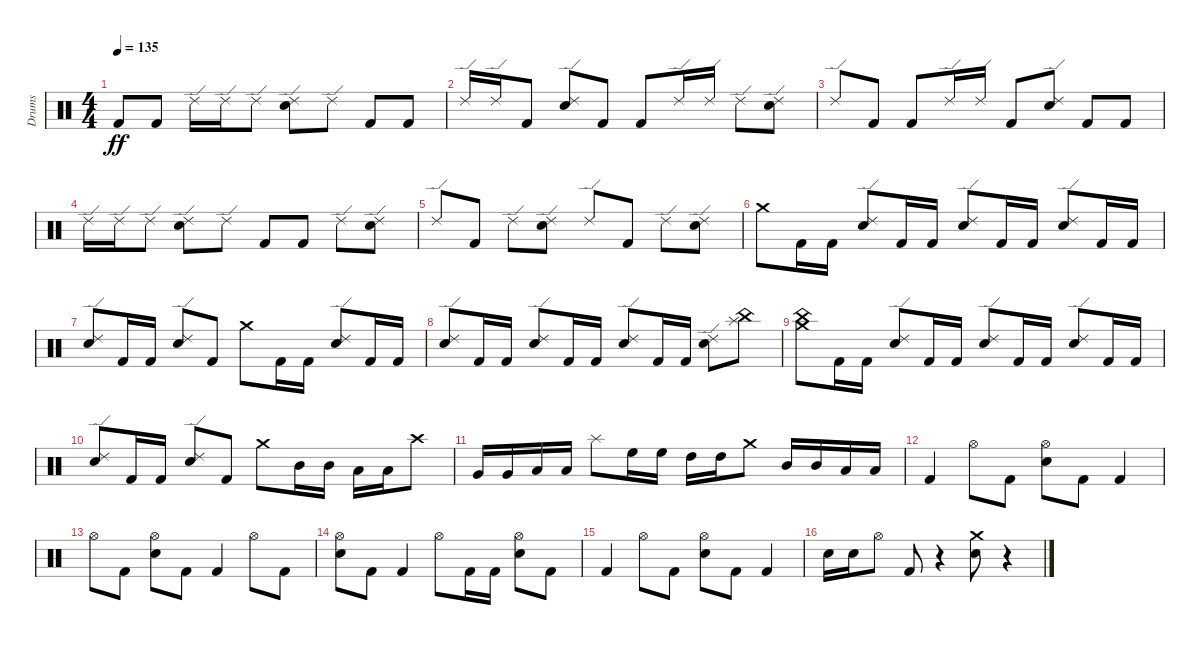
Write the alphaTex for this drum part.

\track ("Drums" "Drums") {instrument percussion}
\staff {score}
\articulation defaults
\ts (4 4)
\tempo 135
\clef neutral
\ks c "Kick (hit) 2".8{dy ff} "Kick (hit) 2".8 "Ride (edge) 2".16 "Ride (edge) 2".16 "Ride (edge) 2".8
("Electric Snare (hit)" "Ride (edge) 2").8 "Ride (edge) 2".8 "Kick (hit) 2".8 "Kick (hit) 2".8 |
"Ride (edge) 2".16 "Ride (edge) 2".16 "Kick (hit) 2".8 ("Electric Snare (hit)" "Ride (edge) 2").8 "Kick (hit) 2".8 "Kick (hit) 2".8 "Ride (edge) 2".16 "Ride (edge) 2".16 "Ride (edge) 2".8 ("Electric Snare (hit)" "Ride (edge) 2").8 |
"Ride (edge) 2".8 "Kick (hit) 2".8 "Kick (hit) 2".8 "Ride (edge) 2".16 "Ride (edge) 2".16 "Kick (hit) 2".8 ("Electric Snare (hit)" "Ride (edge) 2").8 "Kick (hit) 2".8 "Kick (hit) 2".8 |
"Ride (edge) 2".16 "Ride (edge) 2".16 "Ride (edge) 2".8 ("Electric Snare (hit)" "Ride (edge) 2").8 "Ride (edge) 2".8 "Kick (hit) 2".8 "Kick (hit) 2".8 "Ride (edge) 2".8 ("Electric Snare (hit)" "Ride (edge) 2").8 |
"Ride (edge) 2".8 "Kick (hit) 2".8 "Ride (edge) 2".8 ("Electric Snare (hit)" "Ride (edge) 2").8 "Ride (edge) 2".8 "Kick (hit) 2".8 "Ride (edge) 2".8 ("Electric Snare (hit)" "Ride (edge) 2").8 |
"Crash medium (hit)".8 "Kick (hit) 2".16 "Kick (hit) 2".16 ("Electric Snare (hit)" "Ride (edge) 2").8 "Kick (hit) 2".16 "Kick (hit) 2".16 ("Electric Snare (hit)" "Ride (edge) 2").8 "Kick (hit) 2".16 "Kick (hit) 2".16 ("Electric Snare (hit)" "Ride (edge) 2").8 "Kick (hit) 2".16 "Kick (hit) 2".16 |
("Electric Snare (hit)" "Ride (edge) 2").8 "Kick (hit) 2".16 "Kick (hit) 2".16 ("Electric Snare (hit)" "Ride (edge) 2").8 "Kick (hit) 2".8 "Crash medium (hit)".8 "Kick (hit) 2".16 "Kick (hit) 2".16 ("Electric Snare (hit)" "Ride (edge) 2").8 "Kick (hit) 2".16 "Kick (hit) 2".16 |
("Electric Snare (hit)" "Ride (edge) 2").8 "Kick (hit) 2".16 "Kick (hit) 2".16 ("Electric Snare (hit)" "Ride (edge) 2").8 "Kick (hit) 2".16 "Kick (hit) 2".16 ("Electric Snare (hit)" "Ride (edge) 2").8 "Kick (hit) 2".16 "Kick (hit) 2".16 ("Electric Snare (hit)" "Ride (edge) 2").8 ("China (hit)" "Splash (hit)").8 |
("China (hit)" "Crash medium (hit)").8 "Kick (hit) 2".16 "Kick (hit) 2".16 ("Electric Snare (hit)" "Ride (edge) 2").8 "Kick (hit) 2".16 "Kick (hit) 2".16 ("Electric Snare (hit)" "Ride (edge) 2").8 "Kick (hit) 2".16 "Kick (hit) 2".16 ("Electric Snare (hit)" "Ride (edge) 2").8 "Kick (hit) 2".16 "Kick (hit) 2".16 |
("Electric Snare (hit)" "Ride (edge) 2").8 "Kick (hit) 2".16 "Kick (hit) 2".16 ("Electric Snare (hit)" "Ride (edge) 2").8 "Kick (hit) 2".8 "Crash medium (hit)".8 "Mid Tom (hit)".16 "Mid Tom (hit)".16 "Low Tom (hit)".16 "Low Tom (hit)".16 "Crash high (hit)".8 |
"Very Low Tom (hit)".16 "Very Low Tom (hit)".16 "Low Floor Tom (hit)".16 "Low Floor Tom (hit)".16 "Splash (hit)".8 "High Floor Tom (hit)".16 "High Floor Tom (hit)".16 "High Tom (hit)".16 "High Tom (hit)".16 "Crash medium (hit)".8 "Mid Tom (hit)".16 "Mid Tom (hit)".16 "Low Tom (hit)".16 "Low Tom (hit)".16 |
"Kick (hit) 2".4 "Hi-Hat (open)".8 "Kick (hit) 2".8 ("Electric Snare (hit)" "Hi-Hat (open)").8 "Kick (hit) 2".8 "Kick (hit) 2".4 |
"Hi-Hat (open)".8 "Kick (hit) 2".8 ("Electric Snare (hit)" "Hi-Hat (open)").8 "Kick (hit) 2".8 "Kick (hit) 2".4 "Hi-Hat (open)".8 "Kick (hit) 2".8 |
("Electric Snare (hit)" "Hi-Hat (open)").8 "Kick (hit) 2".8 "Kick (hit) 2".4 "Hi-Hat (open)".8 "Kick (hit) 2".16 "Kick (hit) 2".16 ("Electric Snare (hit)" "Hi-Hat (open)").8 "Kick (hit) 2".8 |
"Kick (hit) 2".4 "Hi-Hat (open)".8 "Kick (hit) 2".8 ("Electric Snare (hit)" "Hi-Hat (open)").8 "Kick (hit) 2".8 "Kick (hit) 2".4 |
"Electric Snare (hit)".16 "Electric Snare (hit)".16 "Hi-Hat (open)".8 "Kick (hit) 2".8 r.4 ("Electric Snare (hit)" "Crash medium (hit)").8 r.4
